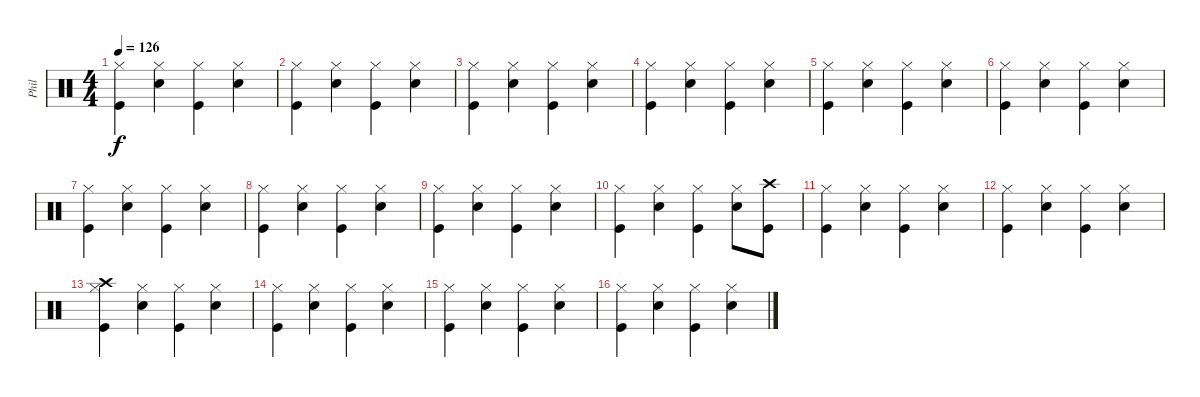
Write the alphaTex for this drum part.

\track ("Phil" "Phil") {instrument percussion}
\staff {score}
\articulation defaults
\ts (4 4)
\tempo 126
\clef neutral
\ks c
("Hi-Hat (closed)" "Kick (hit)").4{dy f} ("Hi-Hat (closed)" "Snare (hit) 2").4 ("Hi-Hat (closed)" "Kick (hit)").4 ("Hi-Hat (closed)" "Snare (hit) 2").4 |
("Hi-Hat (closed)" "Kick (hit)").4 ("Hi-Hat (closed)" "Snare (hit) 2").4 ("Hi-Hat (closed)" "Kick (hit)").4 ("Hi-Hat (closed)" "Snare (hit) 2").4 |
("Hi-Hat (closed)" "Kick (hit)").4 ("Hi-Hat (closed)" "Snare (hit) 2").4 ("Hi-Hat (closed)" "Kick (hit)").4 ("Hi-Hat (closed)" "Snare (hit) 2").4 |
("Hi-Hat (closed)" "Kick (hit)").4 ("Hi-Hat (closed)" "Snare (hit) 2").4 ("Hi-Hat (closed)" "Kick (hit)").4 ("Hi-Hat (closed)" "Snare (hit) 2").4 |
("Hi-Hat (closed)" "Kick (hit)").4 ("Hi-Hat (closed)" "Snare (hit) 2").4 ("Hi-Hat (closed)" "Kick (hit)").4 ("Hi-Hat (closed)" "Snare (hit) 2").4 |
("Hi-Hat (closed)" "Kick (hit)").4 ("Hi-Hat (closed)" "Snare (hit) 2").4 ("Hi-Hat (closed)" "Kick (hit)").4 ("Hi-Hat (closed)" "Snare (hit) 2").4 |
("Hi-Hat (closed)" "Kick (hit)").4 ("Hi-Hat (closed)" "Snare (hit) 2").4 ("Hi-Hat (closed)" "Kick (hit)").4 ("Hi-Hat (closed)" "Snare (hit) 2").4 |
("Hi-Hat (closed)" "Kick (hit)").4 ("Hi-Hat (closed)" "Snare (hit) 2").4 ("Hi-Hat (closed)" "Kick (hit)").4 ("Hi-Hat (closed)" "Snare (hit) 2").4 |
("Hi-Hat (closed)" "Kick (hit)").4 ("Hi-Hat (closed)" "Snare (hit) 2").4 ("Hi-Hat (closed)" "Kick (hit)").4 ("Hi-Hat (closed)" "Snare (hit) 2").4 |
("Hi-Hat (closed)" "Kick (hit)").4 ("Hi-Hat (closed)" "Snare (hit) 2").4 ("Hi-Hat (closed)" "Kick (hit)").4 ("Hi-Hat (closed)" "Snare (hit) 2").8 ("Crash high (hit)" "Kick (hit)").8 |
("Hi-Hat (closed)" "Kick (hit)").4 ("Hi-Hat (closed)" "Snare (hit) 2").4 ("Hi-Hat (closed)" "Kick (hit)").4 ("Hi-Hat (closed)" "Snare (hit) 2").4 |
("Hi-Hat (closed)" "Kick (hit)").4 ("Hi-Hat (closed)" "Snare (hit) 2").4 ("Hi-Hat (closed)" "Kick (hit)").4 ("Hi-Hat (closed)" "Snare (hit) 2").4 |
("Hi-Hat (closed)" "Crash high (hit)" "Kick (hit)").4 ("Hi-Hat (closed)" "Snare (hit) 2").4 ("Hi-Hat (closed)" "Kick (hit)").4 ("Hi-Hat (closed)" "Snare (hit) 2").4 |
("Hi-Hat (closed)" "Kick (hit)").4 ("Hi-Hat (closed)" "Snare (hit) 2").4 ("Hi-Hat (closed)" "Kick (hit)").4 ("Hi-Hat (closed)" "Snare (hit) 2").4 |
("Hi-Hat (closed)" "Kick (hit)").4 ("Hi-Hat (closed)" "Snare (hit) 2").4 ("Hi-Hat (closed)" "Kick (hit)").4 ("Hi-Hat (closed)" "Snare (hit) 2").4 |
("Hi-Hat (closed)" "Kick (hit)").4 ("Hi-Hat (closed)" "Snare (hit) 2").4 ("Hi-Hat (closed)" "Kick (hit)").4 ("Hi-Hat (closed)" "Snare (hit) 2").4
